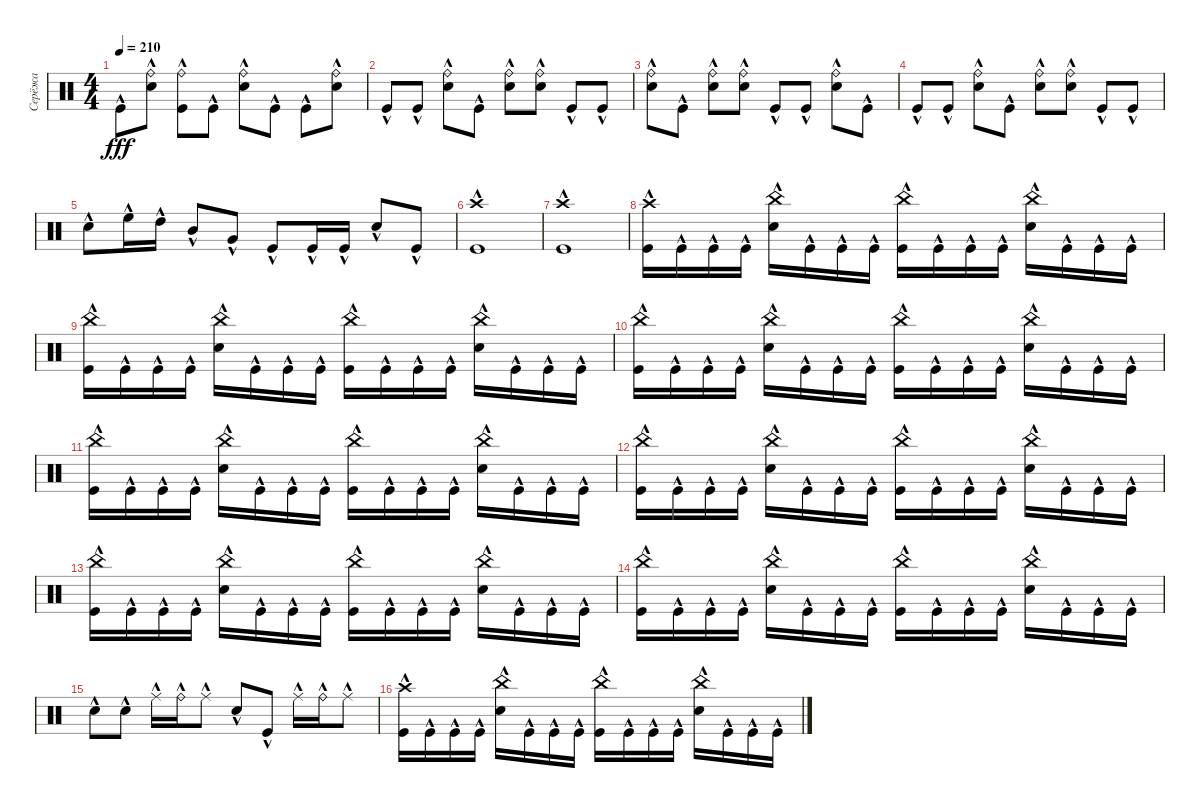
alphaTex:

\track ("Серёжа" "Серёжа") {instrument percussion}
\staff {score}
\articulation defaults
\ts (4 4)
\tempo 210
\clef neutral
\ks c "Kick (hit)"{hac}.8{dy fff}
("Ride (bell)"{hac} "Snare (hit) 2"{hac}).8 ("Ride (bell)"{hac} "Kick (hit)"{hac}).8 "Kick (hit)"{hac}.8 ("Ride (bell)"{hac} "Snare (hit) 2"{hac}).8 "Kick (hit)"{hac}.8 "Kick (hit)"{hac}.8 ("Ride (bell)"{hac} "Snare (hit) 2"{hac}).8 |
"Kick (hit)"{hac}.8 "Kick (hit)"{hac}.8 ("Ride (bell)" "Snare (hit) 2"{hac}).8 "Kick (hit)"{hac}.8 ("Ride (bell)" "Snare (hit) 2"{hac}).8 ("Ride (bell)" "Snare (hit) 2"{hac}).8 "Kick (hit)"{hac}.8 "Kick (hit)"{hac}.8 |
("Ride (bell)" "Snare (hit) 2"{hac}).8 "Kick (hit)"{hac}.8 ("Ride (bell)" "Snare (hit) 2"{hac}).8 ("Ride (bell)" "Snare (hit) 2"{hac}).8 "Kick (hit)"{hac}.8 "Kick (hit)"{hac}.8 ("Ride (bell)" "Snare (hit) 2"{hac}).8 "Kick (hit)"{hac}.8 |
"Kick (hit)"{hac}.8 "Kick (hit)"{hac}.8 ("Ride (bell)" "Snare (hit) 2"{hac}).8 "Kick (hit)"{hac}.8 ("Ride (bell)" "Snare (hit) 2"{hac}).8 ("Ride (bell)" "Snare (hit) 2"{hac}).8 "Kick (hit)"{hac}.8 "Kick (hit)"{hac}.8 |
"Snare (hit) 2"{hac}.8 "High Floor Tom (hit)"{hac}.16 "High Tom (hit)"{hac}.16 "Mid Tom (hit)"{hac}.8 "Very Low Tom (hit)"{hac}.8 "Kick (hit)"{hac}.8 "Kick (hit)"{hac}.16 "Kick (hit)"{hac}.16 "Snare (hit) 2"{hac}.8 "Kick (hit)"{hac}.8 |
("Crash high (hit)"{hac} "Kick (hit)"{hac}).1 |
("Crash high (hit)"{hac} "Kick (hit)"{hac}).1 |
("Crash high (hit)"{hac} "Kick (hit)"{hac}).16 "Kick (hit)"{hac}.16 "Kick (hit)"{hac}.16 "Kick (hit)"{hac}.16 ("China (hit)" "Snare (hit) 2"{hac}).16 "Kick (hit)"{hac}.16 "Kick (hit)"{hac}.16 "Kick (hit)"{hac}.16 ("China (hit)" "Kick (hit)"{hac}).16 "Kick (hit)"{hac}.16 "Kick (hit)"{hac}.16 "Kick (hit)"{hac}.16 ("China (hit)" "Snare (hit) 2"{hac}).16 "Kick (hit)"{hac}.16 "Kick (hit)"{hac}.16 "Kick (hit)"{hac}.16 |
("China (hit)" "Kick (hit)"{hac}).16 "Kick (hit)"{hac}.16 "Kick (hit)"{hac}.16 "Kick (hit)"{hac}.16 ("China (hit)" "Snare (hit) 2"{hac}).16 "Kick (hit)"{hac}.16 "Kick (hit)"{hac}.16 "Kick (hit)"{hac}.16 ("China (hit)" "Kick (hit)"{hac}).16 "Kick (hit)"{hac}.16 "Kick (hit)"{hac}.16 "Kick (hit)"{hac}.16 ("China (hit)" "Snare (hit) 2"{hac}).16 "Kick (hit)"{hac}.16 "Kick (hit)"{hac}.16 "Kick (hit)"{hac}.16 |
("China (hit)" "Kick (hit)"{hac}).16 "Kick (hit)"{hac}.16 "Kick (hit)"{hac}.16 "Kick (hit)"{hac}.16 ("China (hit)" "Snare (hit) 2"{hac}).16 "Kick (hit)"{hac}.16 "Kick (hit)"{hac}.16 "Kick (hit)"{hac}.16 ("China (hit)" "Kick (hit)"{hac}).16 "Kick (hit)"{hac}.16 "Kick (hit)"{hac}.16 "Kick (hit)"{hac}.16 ("China (hit)" "Snare (hit) 2"{hac}).16 "Kick (hit)"{hac}.16 "Kick (hit)"{hac}.16 "Kick (hit)"{hac}.16 |
("China (hit)" "Kick (hit)"{hac}).16 "Kick (hit)"{hac}.16 "Kick (hit)"{hac}.16 "Kick (hit)"{hac}.16 ("China (hit)" "Snare (hit) 2"{hac}).16 "Kick (hit)"{hac}.16 "Kick (hit)"{hac}.16 "Kick (hit)"{hac}.16 ("China (hit)" "Kick (hit)"{hac}).16 "Kick (hit)"{hac}.16 "Kick (hit)"{hac}.16 "Kick (hit)"{hac}.16 ("China (hit)" "Snare (hit) 2"{hac}).16 "Kick (hit)"{hac}.16 "Kick (hit)"{hac}.16 "Kick (hit)"{hac}.16 |
("China (hit)" "Kick (hit)"{hac}).16 "Kick (hit)"{hac}.16 "Kick (hit)"{hac}.16 "Kick (hit)"{hac}.16 ("China (hit)" "Snare (hit) 2"{hac}).16 "Kick (hit)"{hac}.16 "Kick (hit)"{hac}.16 "Kick (hit)"{hac}.16 ("China (hit)" "Kick (hit)"{hac}).16 "Kick (hit)"{hac}.16 "Kick (hit)"{hac}.16 "Kick (hit)"{hac}.16 ("China (hit)" "Snare (hit) 2"{hac}).16 "Kick (hit)"{hac}.16 "Kick (hit)"{hac}.16 "Kick (hit)"{hac}.16 |
("China (hit)" "Kick (hit)"{hac}).16 "Kick (hit)"{hac}.16 "Kick (hit)"{hac}.16 "Kick (hit)"{hac}.16 ("China (hit)" "Snare (hit) 2"{hac}).16 "Kick (hit)"{hac}.16 "Kick (hit)"{hac}.16 "Kick (hit)"{hac}.16 ("China (hit)" "Kick (hit)"{hac}).16 "Kick (hit)"{hac}.16 "Kick (hit)"{hac}.16 "Kick (hit)"{hac}.16 ("China (hit)" "Snare (hit) 2"{hac}).16 "Kick (hit)"{hac}.16 "Kick (hit)"{hac}.16 "Kick (hit)"{hac}.16 |
("China (hit)" "Kick (hit)"{hac}).16 "Kick (hit)"{hac}.16 "Kick (hit)"{hac}.16 "Kick (hit)"{hac}.16 ("China (hit)" "Snare (hit) 2"{hac}).16 "Kick (hit)"{hac}.16 "Kick (hit)"{hac}.16 "Kick (hit)"{hac}.16 ("China (hit)" "Kick (hit)"{hac}).16 "Kick (hit)"{hac}.16 "Kick (hit)"{hac}.16 "Kick (hit)"{hac}.16 ("China (hit)" "Snare (hit) 2"{hac}).16 "Kick (hit)"{hac}.16 "Kick (hit)"{hac}.16 "Kick (hit)"{hac}.16 |
"Snare (hit) 2"{hac}.8 "Snare (hit) 2"{hac}.8 "Ride (middle)"{hac}.16 "Ride (bell)"{hac}.16 "Ride (middle)"{hac}.8 "Snare (hit) 2"{hac}.8 "Kick (hit)"{hac}.8 "Ride (middle)"{hac}.16 "Ride (bell)"{hac}.16 "Ride (middle)"{hac}.8 |
("Crash high (hit)"{hac} "Kick (hit)"{hac}).16 "Kick (hit)"{hac}.16 "Kick (hit)"{hac}.16 "Kick (hit)"{hac}.16 ("China (hit)" "Snare (hit) 2"{hac}).16 "Kick (hit)"{hac}.16 "Kick (hit)"{hac}.16 "Kick (hit)"{hac}.16 ("China (hit)" "Kick (hit)"{hac}).16 "Kick (hit)"{hac}.16 "Kick (hit)"{hac}.16 "Kick (hit)"{hac}.16 ("China (hit)" "Snare (hit) 2"{hac}).16 "Kick (hit)"{hac}.16 "Kick (hit)"{hac}.16 "Kick (hit)"{hac}.16
